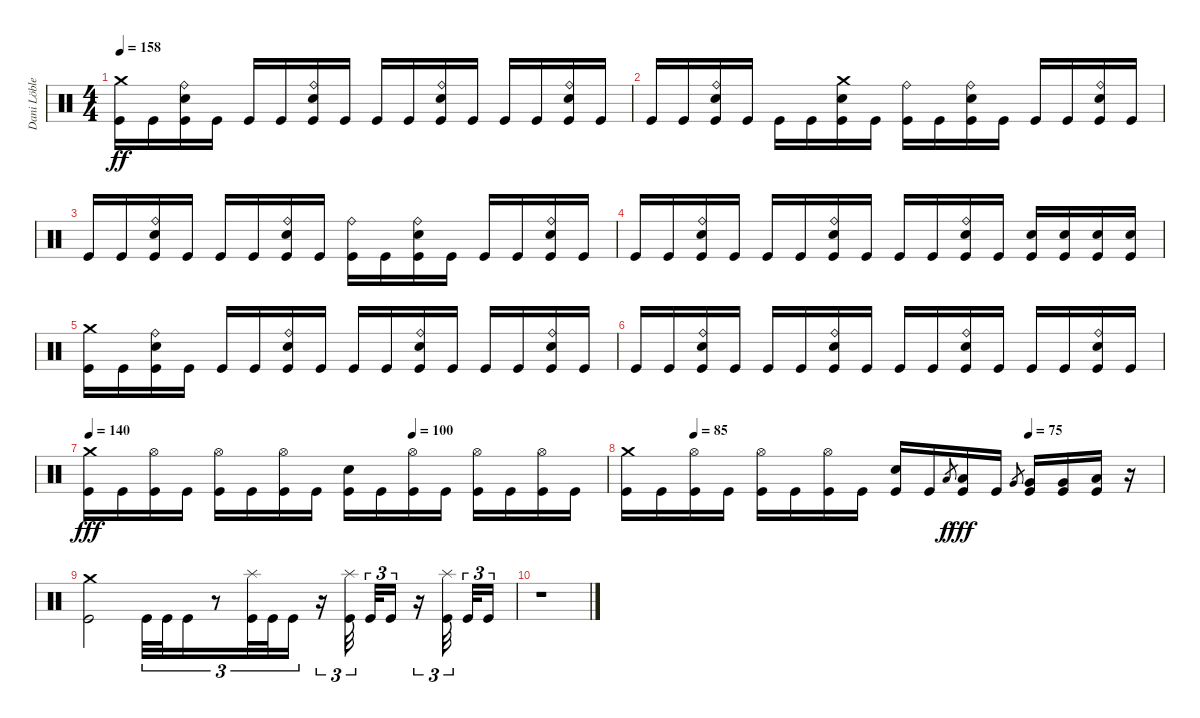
\track ("Dani Löble" "Dani Löble") {instrument percussion}
\staff {score}
\articulation defaults
\ts (4 4)
\tempo 158
\clef neutral
\ks c
("Crash medium (hit)" "Kick (hit)").16{dy ff} "Kick (hit)".16 ("Ride (bell)" "Electric Snare (hit)" "Kick (hit)").16 "Kick (hit)".16 "Kick (hit)".16 "Kick (hit)".16 ("Ride (bell)" "Electric Snare (hit)" "Kick (hit)").16 "Kick (hit)".16 "Kick (hit)".16 "Kick (hit)".16 ("Ride (bell)" "Electric Snare (hit)" "Kick (hit)").16 "Kick (hit)".16 "Kick (hit)".16 "Kick (hit)".16 ("Ride (bell)" "Electric Snare (hit)" "Kick (hit)").16 "Kick (hit)".16 |
"Kick (hit)".16 "Kick (hit)".16 ("Ride (bell)" "Electric Snare (hit)" "Kick (hit)").16 "Kick (hit)".16 "Kick (hit)".16 "Kick (hit)".16 ("Crash medium (hit)" "Electric Snare (hit)" "Kick (hit)").16 "Kick (hit)".16 ("Ride (bell)" "Kick (hit)").16 "Kick (hit)".16 ("Ride (bell)" "Electric Snare (hit)" "Kick (hit)").16 "Kick (hit)".16 "Kick (hit)".16 "Kick (hit)".16 ("Ride (bell)" "Electric Snare (hit)" "Kick (hit)").16 "Kick (hit)".16 |
"Kick (hit)".16 "Kick (hit)".16 ("Ride (bell)" "Electric Snare (hit)" "Kick (hit)").16 "Kick (hit)".16 "Kick (hit)".16 "Kick (hit)".16 ("Ride (bell)" "Electric Snare (hit)" "Kick (hit)").16 "Kick (hit)".16 ("Ride (bell)" "Kick (hit)").16 "Kick (hit)".16 ("Ride (bell)" "Electric Snare (hit)" "Kick (hit)").16 "Kick (hit)".16 "Kick (hit)".16 "Kick (hit)".16 ("Ride (bell)" "Electric Snare (hit)" "Kick (hit)").16 "Kick (hit)".16 |
"Kick (hit)".16 "Kick (hit)".16 ("Ride (bell)" "Electric Snare (hit)" "Kick (hit)").16 "Kick (hit)".16 "Kick (hit)".16 "Kick (hit)".16 ("Ride (bell)" "Electric Snare (hit)" "Kick (hit)").16 "Kick (hit)".16 "Kick (hit)".16 "Kick (hit)".16 ("Ride (bell)" "Electric Snare (hit)" "Kick (hit)").16 "Kick (hit)".16 ("Electric Snare (hit)" "Kick (hit)").16 ("Electric Snare (hit)" "Kick (hit)").16 ("Electric Snare (hit)" "Kick (hit)").16 ("Electric Snare (hit)" "Kick (hit)").16 |
("Crash medium (hit)" "Kick (hit)").16 "Kick (hit)".16 ("Ride (bell)" "Electric Snare (hit)" "Kick (hit)").16 "Kick (hit)".16 "Kick (hit)".16 "Kick (hit)".16 ("Ride (bell)" "Electric Snare (hit)" "Kick (hit)").16 "Kick (hit)".16 "Kick (hit)".16 "Kick (hit)".16 ("Ride (bell)" "Electric Snare (hit)" "Kick (hit)").16 "Kick (hit)".16 "Kick (hit)".16 "Kick (hit)".16 ("Ride (bell)" "Electric Snare (hit)" "Kick (hit)").16 "Kick (hit)".16 |
"Kick (hit)".16 "Kick (hit)".16 ("Ride (bell)" "Electric Snare (hit)" "Kick (hit)").16 "Kick (hit)".16 "Kick (hit)".16 "Kick (hit)".16 ("Ride (bell)" "Electric Snare (hit)" "Kick (hit)").16 "Kick (hit)".16 "Kick (hit)".16 "Kick (hit)".16 ("Ride (bell)" "Electric Snare (hit)" "Kick (hit)").16 "Kick (hit)".16 "Kick (hit)".16 "Kick (hit)".16 ("Ride (bell)" "Electric Snare (hit)" "Kick (hit)").16 "Kick (hit)".16 |
\tempo 140
\tempo (100 0.625)
("Crash medium (hit)" "Kick (hit)").16{dy fff} "Kick (hit)".16 ("Hi-Hat (open)" "Kick (hit)").16 "Kick (hit)".16 ("Hi-Hat (open)" "Kick (hit)").16 "Kick (hit)".16 ("Hi-Hat (open)" "Kick (hit)").16 "Kick (hit)".16 ("Electric Snare (hit)" "Kick (hit)").16 "Kick (hit)".16 ("Hi-Hat (open)" "Kick (hit)").16 "Kick (hit)".16 ("Hi-Hat (open)" "Kick (hit)").16 "Kick (hit)".16 ("Hi-Hat (open)" "Kick (hit)").16 "Kick (hit)".16 |
\tempo (85 0.125)
\tempo (75 0.75)
("Crash medium (hit)" "Kick (hit)").16 "Kick (hit)".16 ("Hi-Hat (open)" "Kick (hit)").16 "Kick (hit)".16 ("Hi-Hat (open)" "Kick (hit)").16 "Kick (hit)".16 ("Hi-Hat (open)" "Kick (hit)").16 "Kick (hit)".16 ("Electric Snare (hit)" "Kick (hit)").16 "Kick (hit)".16 "Low Tom (hit)".8{gr dy f} ("Low Tom (hit)" "Kick (hit)").16{dy fff} "Kick (hit)".16 "Very Low Tom (hit)".8{gr} ("Very Low Tom (hit)" "Kick (hit)").16 ("Very Low Tom (hit)" "Kick (hit)").16 ("Low Floor Tom (hit)" "Kick (hit)").16 r.16 |
("Crash medium (hit)" "Kick (hit)").2 "Kick (hit)".32{tu (3 2)} "Kick (hit)".32{tu (3 2)} "Kick (hit)".16{tu (3 2)} r.8{tu (3 2)} ("Splash (hit)" "Kick (hit)").32{tu (3 2)} "Kick (hit)".32{tu (3 2)} "Kick (hit)".16{tu (3 2)} r.16{tu (3 2)} ("Splash (hit)" "Kick (hit)").32{tu (3 2) beam splitsecondary} "Kick (hit)".32{tu (3 2)} "Kick (hit)".16{tu (3 2)} r.16{tu (3 2)} ("Splash (hit)" "Kick (hit)").32{tu (3 2) beam splitsecondary} "Kick (hit)".32{tu (3 2)} "Kick (hit)".16{tu (3 2)} |
r.1
